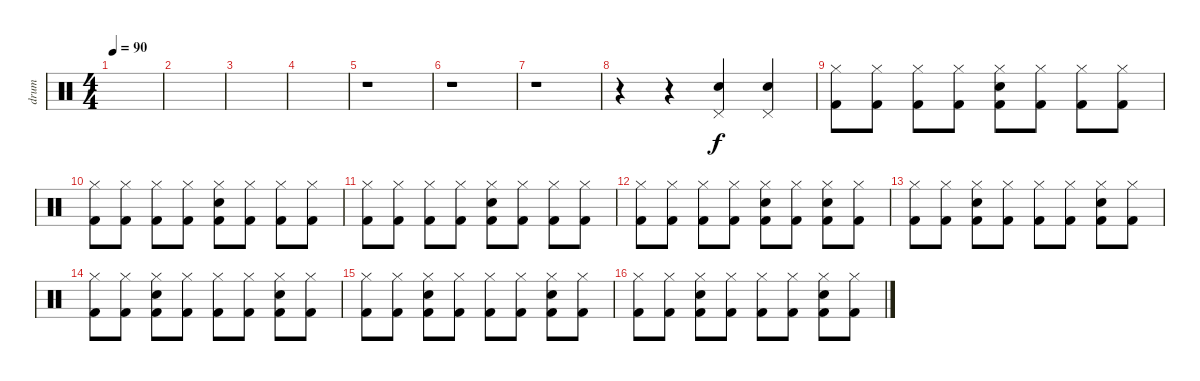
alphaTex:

\track ("drum" "drum") {instrument percussion}
\staff {score}
\articulation defaults
\ts (4 4)
\tempo 90
\clef neutral
\ks c
|
|
|
|
r.1 |
r.1 |
r.1 |
r.4 r.4 ("Snare (hit) 2" "Pedal Hi-Hat (hit)").4 ("Snare (hit) 2" "Pedal Hi-Hat (hit)").4 |
("Kick (hit) 2" "Hi-Hat (closed)").8 ("Kick (hit) 2" "Hi-Hat (closed)").8 ("Kick (hit) 2" "Hi-Hat (closed)").8 ("Kick (hit) 2" "Hi-Hat (closed)").8 ("Kick (hit) 2" "Snare (hit) 2" "Hi-Hat (closed)").8 ("Kick (hit) 2" "Hi-Hat (closed)").8 ("Kick (hit) 2" "Hi-Hat (closed)").8 ("Kick (hit) 2" "Hi-Hat (closed)").8 |
("Kick (hit) 2" "Hi-Hat (closed)").8 ("Kick (hit) 2" "Hi-Hat (closed)").8 ("Kick (hit) 2" "Hi-Hat (closed)").8 ("Kick (hit) 2" "Hi-Hat (closed)").8 ("Snare (hit) 2" "Kick (hit) 2" "Hi-Hat (closed)").8 ("Kick (hit) 2" "Hi-Hat (closed)").8 ("Kick (hit) 2" "Hi-Hat (closed)").8 ("Kick (hit) 2" "Hi-Hat (closed)").8 |
("Kick (hit) 2" "Hi-Hat (closed)").8 ("Kick (hit) 2" "Hi-Hat (closed)").8 ("Kick (hit) 2" "Hi-Hat (closed)").8 ("Kick (hit) 2" "Hi-Hat (closed)").8 ("Kick (hit) 2" "Snare (hit) 2" "Hi-Hat (closed)").8 ("Kick (hit) 2" "Hi-Hat (closed)").8 ("Kick (hit) 2" "Hi-Hat (closed)").8 ("Kick (hit) 2" "Hi-Hat (closed)").8 |
("Kick (hit) 2" "Hi-Hat (closed)").8 ("Kick (hit) 2" "Hi-Hat (closed)").8 ("Kick (hit) 2" "Hi-Hat (closed)").8 ("Kick (hit) 2" "Hi-Hat (closed)").8 ("Kick (hit) 2" "Snare (hit) 2" "Hi-Hat (closed)").8 ("Kick (hit) 2" "Hi-Hat (closed)").8 ("Kick (hit) 2" "Snare (hit) 2" "Hi-Hat (closed)").8 ("Kick (hit) 2" "Hi-Hat (closed)").8 |
("Kick (hit) 2" "Hi-Hat (closed)").8 ("Kick (hit) 2" "Hi-Hat (closed)").8 ("Kick (hit) 2" "Snare (hit) 2" "Hi-Hat (closed)").8 ("Kick (hit) 2" "Hi-Hat (closed)").8 ("Kick (hit) 2" "Hi-Hat (closed)").8 ("Kick (hit) 2" "Hi-Hat (closed)").8 ("Kick (hit) 2" "Snare (hit) 2" "Hi-Hat (closed)").8 ("Kick (hit) 2" "Hi-Hat (closed)").8 |
("Kick (hit) 2" "Hi-Hat (closed)").8 ("Kick (hit) 2" "Hi-Hat (closed)").8 ("Kick (hit) 2" "Snare (hit) 2" "Hi-Hat (closed)").8 ("Kick (hit) 2" "Hi-Hat (closed)").8 ("Kick (hit) 2" "Hi-Hat (closed)").8 ("Kick (hit) 2" "Hi-Hat (closed)").8 ("Kick (hit) 2" "Snare (hit) 2" "Hi-Hat (closed)").8 ("Kick (hit) 2" "Hi-Hat (closed)").8 |
("Kick (hit) 2" "Hi-Hat (closed)").8 ("Kick (hit) 2" "Hi-Hat (closed)").8 ("Kick (hit) 2" "Snare (hit) 2" "Hi-Hat (closed)").8 ("Kick (hit) 2" "Hi-Hat (closed)").8 ("Kick (hit) 2" "Hi-Hat (closed)").8 ("Kick (hit) 2" "Hi-Hat (closed)").8 ("Kick (hit) 2" "Snare (hit) 2" "Hi-Hat (closed)").8 ("Kick (hit) 2" "Hi-Hat (closed)").8 |
("Kick (hit) 2" "Hi-Hat (closed)").8 ("Kick (hit) 2" "Hi-Hat (closed)").8 ("Kick (hit) 2" "Snare (hit) 2" "Hi-Hat (closed)").8 ("Kick (hit) 2" "Hi-Hat (closed)").8 ("Kick (hit) 2" "Hi-Hat (closed)").8 ("Kick (hit) 2" "Hi-Hat (closed)").8 ("Kick (hit) 2" "Snare (hit) 2" "Hi-Hat (closed)").8 ("Kick (hit) 2" "Hi-Hat (closed)").8
